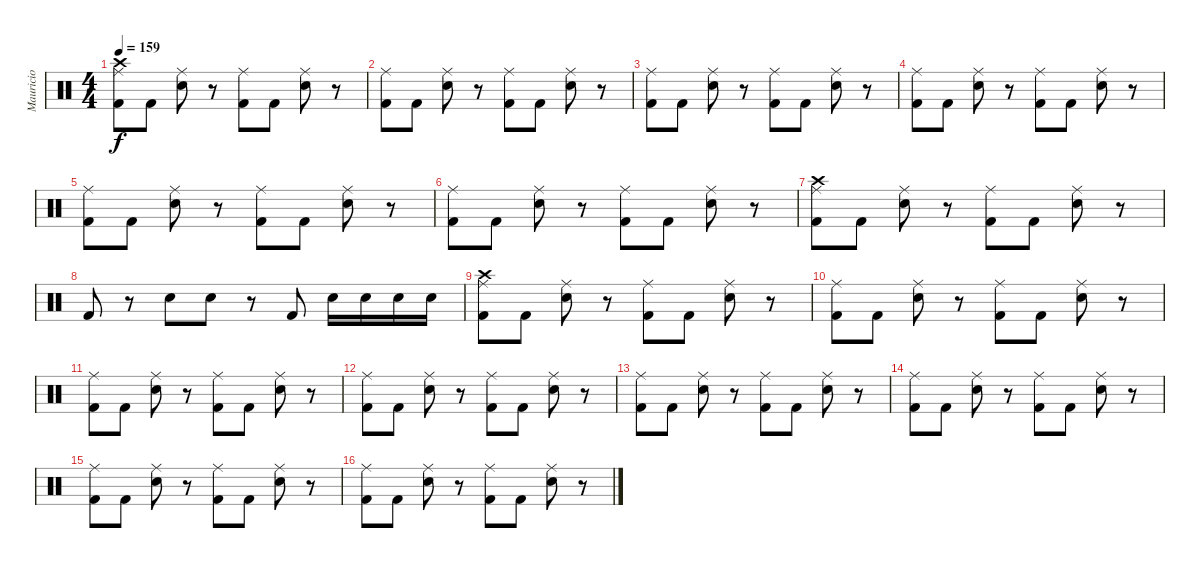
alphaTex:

\track ("Mauricio" "Mauricio") {instrument percussion}
\staff {score}
\articulation defaults
\ts (4 4)
\tempo 159
\clef neutral
\ks c
("Ride (middle)" "Crash high (hit)" "Kick (hit) 2").8{dy f} "Kick (hit) 2".8 ("Ride (middle)" "Snare (hit) 2").8 r.8 ("Ride (middle)" "Kick (hit) 2").8 "Kick (hit) 2".8 ("Ride (middle)" "Snare (hit) 2").8 r.8 |
("Ride (middle)" "Kick (hit) 2").8 "Kick (hit) 2".8 ("Ride (middle)" "Snare (hit) 2").8 r.8 ("Ride (middle)" "Kick (hit) 2").8 "Kick (hit) 2".8 ("Ride (middle)" "Snare (hit) 2").8 r.8 |
("Ride (middle)" "Kick (hit) 2").8 "Kick (hit) 2".8 ("Ride (middle)" "Snare (hit) 2").8 r.8 ("Ride (middle)" "Kick (hit) 2").8 "Kick (hit) 2".8 ("Ride (middle)" "Snare (hit) 2").8 r.8 |
("Ride (middle)" "Kick (hit) 2").8 "Kick (hit) 2".8 ("Ride (middle)" "Snare (hit) 2").8 r.8 ("Ride (middle)" "Kick (hit) 2").8 "Kick (hit) 2".8 ("Ride (middle)" "Snare (hit) 2").8 r.8 |
("Ride (middle)" "Kick (hit) 2").8 "Kick (hit) 2".8 ("Ride (middle)" "Snare (hit) 2").8 r.8 ("Ride (middle)" "Kick (hit) 2").8 "Kick (hit) 2".8 ("Ride (middle)" "Snare (hit) 2").8 r.8 |
("Ride (middle)" "Kick (hit) 2").8 "Kick (hit) 2".8 ("Ride (middle)" "Snare (hit) 2").8 r.8 ("Ride (middle)" "Kick (hit) 2").8 "Kick (hit) 2".8 ("Ride (middle)" "Snare (hit) 2").8 r.8 |
("Ride (middle)" "Crash high (hit)" "Kick (hit) 2").8 "Kick (hit) 2".8 ("Ride (middle)" "Snare (hit) 2").8 r.8 ("Ride (middle)" "Kick (hit) 2").8 "Kick (hit) 2".8 ("Ride (middle)" "Snare (hit) 2").8 r.8 |
"Kick (hit) 2".8 r.8 "Snare (hit) 2".8 "Snare (hit) 2".8 r.8 "Kick (hit) 2".8 "Snare (hit) 2".16 "Snare (hit) 2".16 "Snare (hit) 2".16 "Snare (hit) 2".16 |
("Ride (middle)" "Crash high (hit)" "Kick (hit) 2").8 "Kick (hit) 2".8 ("Ride (middle)" "Snare (hit) 2").8 r.8 ("Ride (middle)" "Kick (hit) 2").8 "Kick (hit) 2".8 ("Ride (middle)" "Snare (hit) 2").8 r.8 |
("Ride (middle)" "Kick (hit) 2").8 "Kick (hit) 2".8 ("Ride (middle)" "Snare (hit) 2").8 r.8 ("Ride (middle)" "Kick (hit) 2").8 "Kick (hit) 2".8 ("Ride (middle)" "Snare (hit) 2").8 r.8 |
("Ride (middle)" "Kick (hit) 2").8 "Kick (hit) 2".8 ("Ride (middle)" "Snare (hit) 2").8 r.8 ("Ride (middle)" "Kick (hit) 2").8 "Kick (hit) 2".8 ("Ride (middle)" "Snare (hit) 2").8 r.8 |
("Ride (middle)" "Kick (hit) 2").8 "Kick (hit) 2".8 ("Ride (middle)" "Snare (hit) 2").8 r.8 ("Ride (middle)" "Kick (hit) 2").8 "Kick (hit) 2".8 ("Ride (middle)" "Snare (hit) 2").8 r.8 |
("Ride (middle)" "Kick (hit) 2").8 "Kick (hit) 2".8 ("Ride (middle)" "Snare (hit) 2").8 r.8 ("Ride (middle)" "Kick (hit) 2").8 "Kick (hit) 2".8 ("Ride (middle)" "Snare (hit) 2").8 r.8 |
("Ride (middle)" "Kick (hit) 2").8 "Kick (hit) 2".8 ("Ride (middle)" "Snare (hit) 2").8 r.8 ("Ride (middle)" "Kick (hit) 2").8 "Kick (hit) 2".8 ("Ride (middle)" "Snare (hit) 2").8 r.8 |
("Ride (middle)" "Kick (hit) 2").8 "Kick (hit) 2".8 ("Ride (middle)" "Snare (hit) 2").8 r.8 ("Ride (middle)" "Kick (hit) 2").8 "Kick (hit) 2".8 ("Ride (middle)" "Snare (hit) 2").8 r.8 |
("Ride (middle)" "Kick (hit) 2").8 "Kick (hit) 2".8 ("Ride (middle)" "Snare (hit) 2").8 r.8 ("Ride (middle)" "Kick (hit) 2").8 "Kick (hit) 2".8 ("Ride (middle)" "Snare (hit) 2").8 r.8
